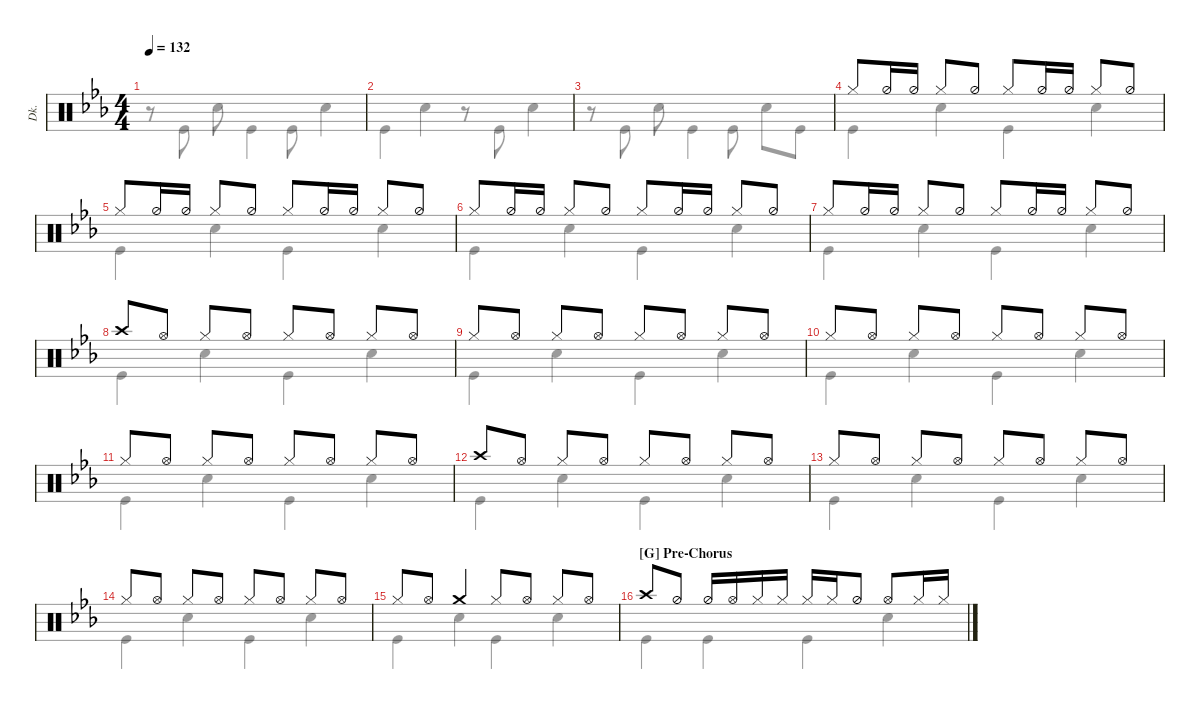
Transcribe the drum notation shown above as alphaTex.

\defaultSystemsLayout 4
\hideDynamics
\bracketExtendMode nobrackets
\otherSystemsTrackNameOrientation horizontal
\track ("Drumkit" "Dk.") {instrument percussion}
\staff {score}
\articulation defaults
\voice
\ts (4 4)
\tempo 132
\clef neutral
\ks eb
|
|
|
"Hi-Hat (closed)".8{dy mf} "Hi-Hat (half)".16 "Hi-Hat (half)".16 "Hi-Hat (closed)".8 "Hi-Hat (half)".8 "Hi-Hat (closed)".8 "Hi-Hat (half)".16 "Hi-Hat (half)".16 "Hi-Hat (closed)".8 "Hi-Hat (half)".8 |
"Hi-Hat (closed)".8 "Hi-Hat (half)".16 "Hi-Hat (half)".16 "Hi-Hat (closed)".8 "Hi-Hat (half)".8 "Hi-Hat (closed)".8 "Hi-Hat (half)".16 "Hi-Hat (half)".16 "Hi-Hat (closed)".8 "Hi-Hat (half)".8 |
"Hi-Hat (closed)".8 "Hi-Hat (half)".16 "Hi-Hat (half)".16 "Hi-Hat (closed)".8 "Hi-Hat (half)".8 "Hi-Hat (closed)".8 "Hi-Hat (half)".16 "Hi-Hat (half)".16 "Hi-Hat (closed)".8 "Hi-Hat (half)".8 |
"Hi-Hat (closed)".8 "Hi-Hat (half)".16 "Hi-Hat (half)".16 "Hi-Hat (closed)".8 "Hi-Hat (half)".8 "Hi-Hat (closed)".8 "Hi-Hat (half)".16 "Hi-Hat (half)".16 "Hi-Hat (closed)".8 "Hi-Hat (half)".8 |
"Crash high (hit)".8 "Hi-Hat (open)".8 "Hi-Hat (closed)".8 "Hi-Hat (open)".8 "Hi-Hat (closed)".8 "Hi-Hat (open)".8 "Hi-Hat (closed)".8 "Hi-Hat (open)".8 |
"Hi-Hat (closed)".8 "Hi-Hat (open)".8 "Hi-Hat (closed)".8 "Hi-Hat (open)".8 "Hi-Hat (closed)".8 "Hi-Hat (open)".8 "Hi-Hat (closed)".8 "Hi-Hat (open)".8 |
"Hi-Hat (closed)".8 "Hi-Hat (open)".8 "Hi-Hat (closed)".8 "Hi-Hat (open)".8 "Hi-Hat (closed)".8 "Hi-Hat (open)".8 "Hi-Hat (closed)".8 "Hi-Hat (open)".8 |
"Hi-Hat (closed)".8 "Hi-Hat (open)".8 "Hi-Hat (closed)".8 "Hi-Hat (open)".8 "Hi-Hat (closed)".8 "Hi-Hat (open)".8 "Hi-Hat (closed)".8 "Hi-Hat (open)".8 |
"Crash high (hit)".8 "Hi-Hat (open)".8 "Hi-Hat (closed)".8 "Hi-Hat (open)".8 "Hi-Hat (closed)".8 "Hi-Hat (open)".8 "Hi-Hat (closed)".8 "Hi-Hat (open)".8 |
"Hi-Hat (closed)".8 "Hi-Hat (open)".8 "Hi-Hat (closed)".8 "Hi-Hat (open)".8 "Hi-Hat (closed)".8 "Hi-Hat (open)".8 "Hi-Hat (closed)".8 "Hi-Hat (open)".8 |
"Hi-Hat (closed)".8 "Hi-Hat (open)".8 "Hi-Hat (closed)".8 "Hi-Hat (open)".8 "Hi-Hat (closed)".8 "Hi-Hat (open)".8 "Hi-Hat (closed)".8 "Hi-Hat (open)".8 |
"Hi-Hat (closed)".8 "Hi-Hat (open)".8 "Crash medium (hit)".4{dy f} "Hi-Hat (closed)".8{dy mf} "Hi-Hat (open)".8 "Hi-Hat (closed)".8 "Hi-Hat (open)".8 |
\section ("G" "Pre-Chorus")
"Crash high (hit)".8{dy f} "Hi-Hat (half)".8{dy mf} "Hi-Hat (half)".16 "Hi-Hat (open)".16 "Hi-Hat (closed)".16 "Hi-Hat (closed)".16 "Hi-Hat (closed)".16 "Hi-Hat (closed)".16 "Hi-Hat (half)".8 "Hi-Hat (open)".8 "Hi-Hat (closed)".16 "Hi-Hat (closed)".16
\voice
\clef neutral
\ottava regular
\simile none
\ks eb
r.8{dy mf} "Kick (hit)".8 "Snare (hit) 2".8 "Kick (hit)".4 "Kick (hit)".8 "Snare (hit) 2".4 |
"Kick (hit)".4 "Snare (hit) 2".4 r.8 "Kick (hit)".8 "Snare (hit) 2".4 |
r.8 "Kick (hit)".8 "Snare (hit) 2".8 "Kick (hit)".4 "Kick (hit)".8 "Snare (hit) 2".8 "Kick (hit)".8 |
"Kick (hit)".4 "Snare (hit) 2".4 "Kick (hit)".4 "Snare (hit) 2".4 |
"Kick (hit)".4 "Snare (hit) 2".4 "Kick (hit)".4 "Snare (hit) 2".4 |
"Kick (hit)".4 "Snare (hit) 2".4 "Kick (hit)".4 "Snare (hit) 2".4 |
"Kick (hit)".4 "Snare (hit) 2".4 "Kick (hit)".4 "Snare (hit) 2".4 |
"Kick (hit)".4 "Snare (hit) 2".4 "Kick (hit)".4 "Snare (hit) 2".4 |
"Kick (hit)".4 "Snare (hit) 2".4 "Kick (hit)".4 "Snare (hit) 2".4 |
"Kick (hit)".4 "Snare (hit) 2".4 "Kick (hit)".4 "Snare (hit) 2".4 |
"Kick (hit)".4 "Snare (hit) 2".4 "Kick (hit)".4 "Snare (hit) 2".4 |
"Kick (hit)".4 "Snare (hit) 2".4 "Kick (hit)".4 "Snare (hit) 2".4 |
"Kick (hit)".4 "Snare (hit) 2".4 "Kick (hit)".4 "Snare (hit) 2".4 |
"Kick (hit)".4 "Snare (hit) 2".4 "Kick (hit)".4 "Snare (hit) 2".4 |
"Kick (hit)".4 "Snare (hit) 2".4 "Kick (hit)".4 "Snare (hit) 2".4 |
"Kick (hit)".4 "Kick (hit)".4 "Kick (hit)".4 "Snare (hit) 2".4
